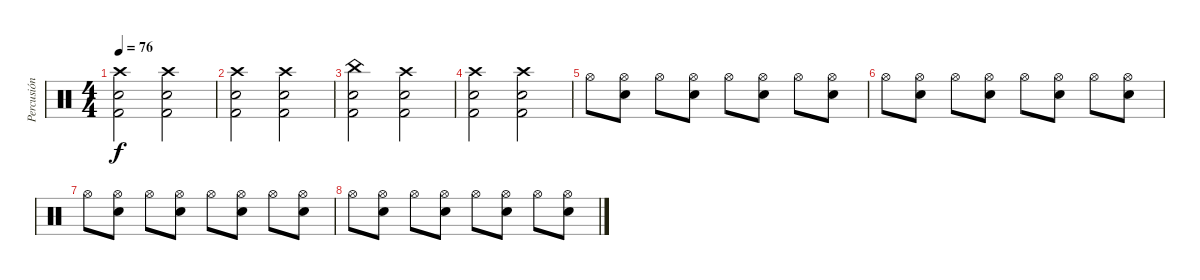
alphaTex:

\track ("Percusión" "Percusión") {instrument percussion}
\staff {score}
\articulation defaults
\ts (4 4)
\tempo 76
\clef neutral
\ks c
("Crash high (hit)" "Snare (hit) 2" "Kick (hit) 2").2{dy f} ("Crash high (hit)" "Snare (hit) 2" "Kick (hit) 2").2 |
("Crash high (hit)" "Snare (hit) 2" "Kick (hit) 2").2 ("Crash high (hit)" "Snare (hit) 2" "Kick (hit) 2").2 |
("China (hit)" "Snare (hit) 2" "Kick (hit) 2").2 ("Crash high (hit)" "Snare (hit) 2" "Kick (hit) 2").2 |
("Crash high (hit)" "Snare (hit) 2" "Kick (hit) 2").2 ("Crash high (hit)" "Snare (hit) 2" "Kick (hit) 2").2 |
"Hi-Hat (open)".8 ("Hi-Hat (open)" "Electric Snare (hit)").8 "Hi-Hat (open)".8 ("Hi-Hat (open)" "Electric Snare (hit)").8 "Hi-Hat (open)".8 ("Hi-Hat (open)" "Electric Snare (hit)").8 "Hi-Hat (open)".8 ("Hi-Hat (open)" "Electric Snare (hit)").8 |
"Hi-Hat (open)".8 ("Hi-Hat (open)" "Electric Snare (hit)").8 "Hi-Hat (open)".8 ("Hi-Hat (open)" "Electric Snare (hit)").8 "Hi-Hat (open)".8 ("Hi-Hat (open)" "Electric Snare (hit)").8 "Hi-Hat (open)".8 ("Hi-Hat (open)" "Electric Snare (hit)").8 |
"Hi-Hat (open)".8 ("Hi-Hat (open)" "Electric Snare (hit)").8 "Hi-Hat (open)".8 ("Hi-Hat (open)" "Electric Snare (hit)").8 "Hi-Hat (open)".8 ("Hi-Hat (open)" "Electric Snare (hit)").8 "Hi-Hat (open)".8 ("Hi-Hat (open)" "Electric Snare (hit)").8 |
"Hi-Hat (open)".8 ("Hi-Hat (open)" "Electric Snare (hit)").8 "Hi-Hat (open)".8 ("Hi-Hat (open)" "Electric Snare (hit)").8 "Hi-Hat (open)".8 ("Hi-Hat (open)" "Electric Snare (hit)").8 "Hi-Hat (open)".8 ("Hi-Hat (open)" "Electric Snare (hit)").8
